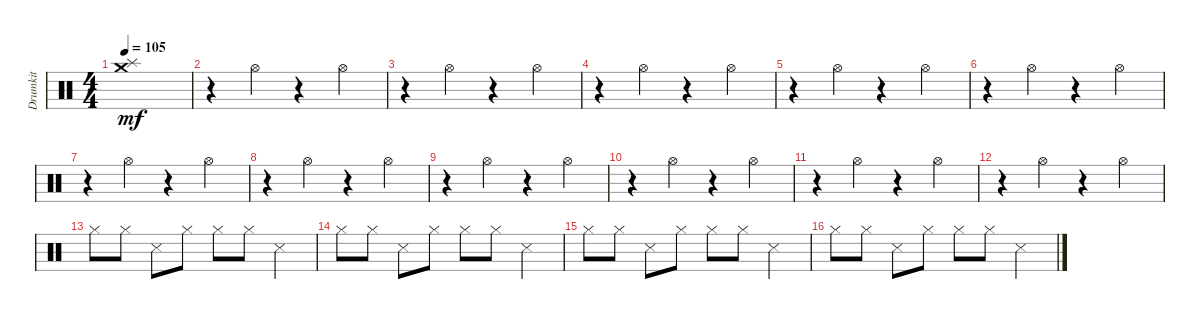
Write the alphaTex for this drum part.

\track ("Drumkit" "Drumkit") {instrument percussion}
\staff {score}
\articulation defaults
\ts (4 4)
\tempo 105
\clef neutral
\ks c
("Splash (hit)" "Crash medium (hit)").1{dy mf} |
r.4 "Hi-Hat (open)".4 r.4 "Hi-Hat (open)".4 |
r.4 "Hi-Hat (open)".4 r.4 "Hi-Hat (open)".4 |
r.4 "Hi-Hat (open)".4 r.4 "Hi-Hat (open)".4 |
r.4 "Hi-Hat (open)".4 r.4 "Hi-Hat (open)".4 |
r.4 "Hi-Hat (open)".4 r.4 "Hi-Hat (open)".4 |
r.4 "Hi-Hat (open)".4 r.4 "Hi-Hat (open)".4 |
r.4 "Hi-Hat (open)".4 r.4 "Hi-Hat (open)".4 |
r.4 "Hi-Hat (open)".4 r.4 "Hi-Hat (open)".4 |
r.4 "Hi-Hat (open)".4 r.4 "Hi-Hat (open)".4 |
r.4 "Hi-Hat (open)".4 r.4 "Hi-Hat (open)".4 |
r.4 "Hi-Hat (open)".4 r.4 "Hi-Hat (open)".4 |
"Hi-Hat (closed)".8 "Hi-Hat (closed)".8 "Snare (side stick) 3".8 "Hi-Hat (closed)".8 "Hi-Hat (closed)".8 "Hi-Hat (closed)".8 "Snare (side stick) 3".4 |
"Hi-Hat (closed)".8 "Hi-Hat (closed)".8 "Snare (side stick) 3".8 "Hi-Hat (closed)".8 "Hi-Hat (closed)".8 "Hi-Hat (closed)".8 "Snare (side stick) 3".4 |
"Hi-Hat (closed)".8 "Hi-Hat (closed)".8 "Snare (side stick) 3".8 "Hi-Hat (closed)".8 "Hi-Hat (closed)".8 "Hi-Hat (closed)".8 "Snare (side stick) 3".4 |
"Hi-Hat (closed)".8 "Hi-Hat (closed)".8 "Snare (side stick) 3".8 "Hi-Hat (closed)".8 "Hi-Hat (closed)".8 "Hi-Hat (closed)".8 "Snare (side stick) 3".4
